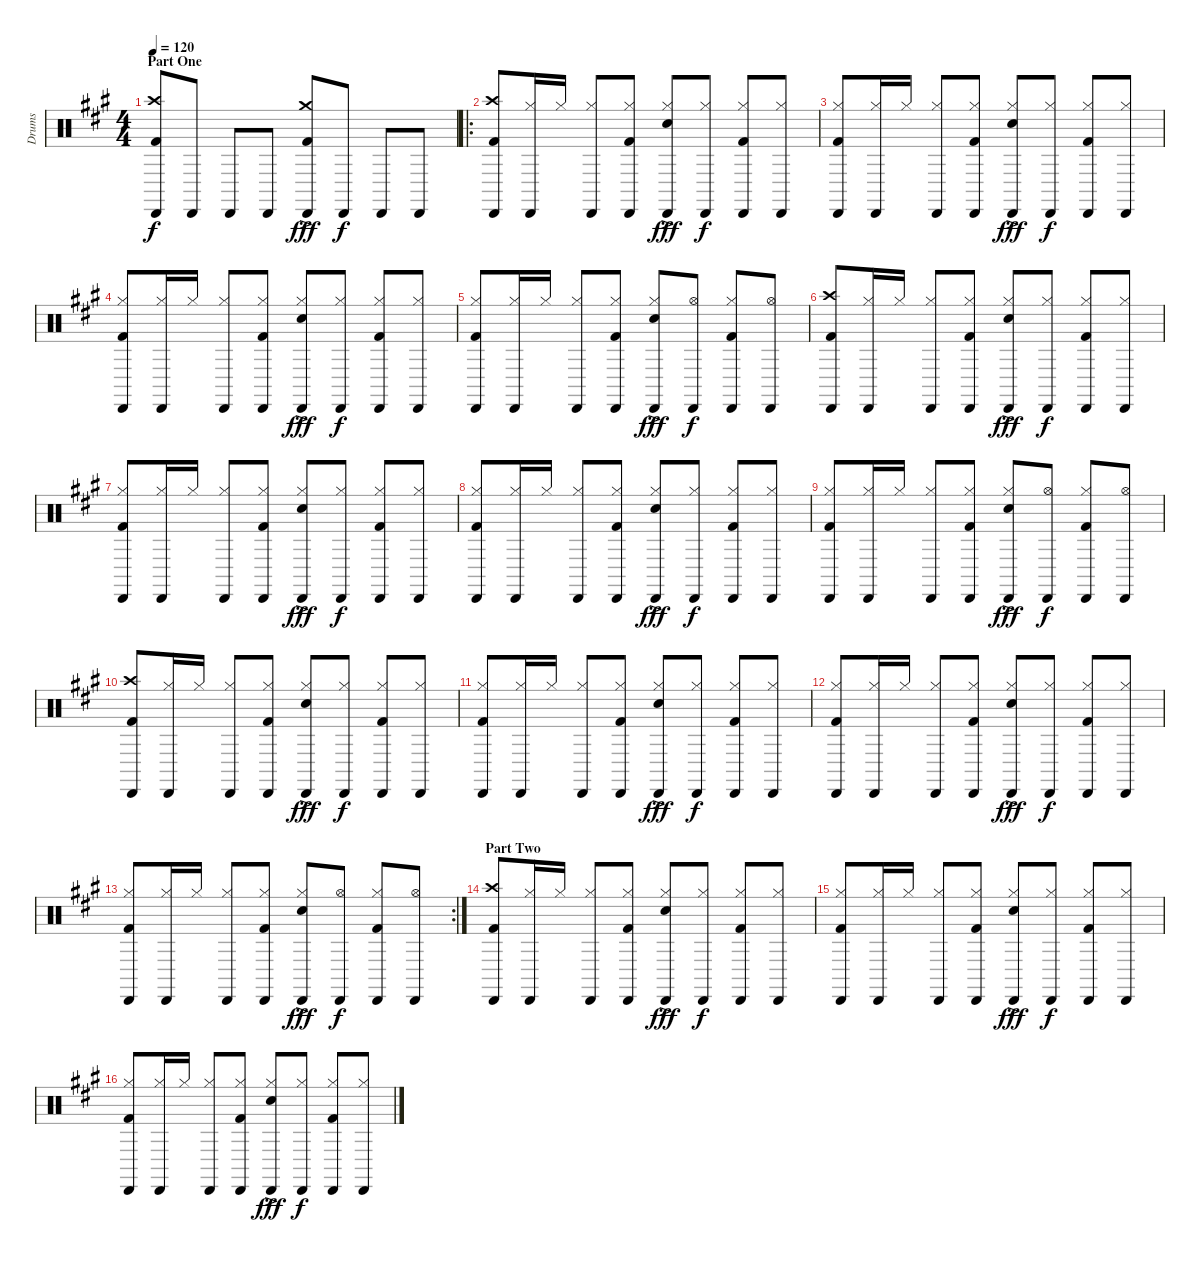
\track ("Drums" "Drums") {instrument percussion}
\staff {score}
\articulation defaults
\ts (4 4)
\section ("" "Part One")
\tempo 120
\clef neutral
\ks a
("Crash high (hit)" "Kick (hit) 2" "Cabasa (hit)").8{dy f} "Cabasa (hit)".8 "Cabasa (hit)".8 "Cabasa (hit)".8 ("Crash medium (hit)" "Kick (hit) 2" "Cabasa (hit)"{ac}).8{dy fff} "Cabasa (hit)".8{dy f} "Cabasa (hit)".8 "Cabasa (hit)".8 |
\ro
("Crash high (hit)" "Kick (hit) 2" "Cabasa (hit)").8 ("Hi-Hat (closed)" "Cabasa (hit)").16 "Hi-Hat (closed)".16 ("Hi-Hat (closed)" "Cabasa (hit)").8 ("Hi-Hat (closed)" "Kick (hit) 2" "Cabasa (hit)").8 ("Hi-Hat (closed)" "Snare (hit) 2" "Cabasa (hit)"{ac}).8{dy fff} ("Hi-Hat (closed)" "Cabasa (hit)").8{dy f} ("Hi-Hat (closed)" "Kick (hit) 2" "Cabasa (hit)").8 ("Hi-Hat (closed)" "Cabasa (hit)").8 |
("Hi-Hat (closed)" "Kick (hit) 2" "Cabasa (hit)").8 ("Hi-Hat (closed)" "Cabasa (hit)").16 "Hi-Hat (closed)".16 ("Hi-Hat (closed)" "Cabasa (hit)").8 ("Hi-Hat (closed)" "Kick (hit) 2" "Cabasa (hit)").8 ("Hi-Hat (closed)" "Snare (hit) 2" "Cabasa (hit)"{ac}).8{dy fff} ("Hi-Hat (closed)" "Cabasa (hit)").8{dy f} ("Hi-Hat (closed)" "Kick (hit) 2" "Cabasa (hit)").8 ("Hi-Hat (closed)" "Cabasa (hit)").8 |
("Hi-Hat (closed)" "Kick (hit) 2" "Cabasa (hit)").8 ("Hi-Hat (closed)" "Cabasa (hit)").16 "Hi-Hat (closed)".16 ("Hi-Hat (closed)" "Cabasa (hit)").8 ("Hi-Hat (closed)" "Kick (hit) 2" "Cabasa (hit)").8 ("Hi-Hat (closed)" "Snare (hit) 2" "Cabasa (hit)"{ac}).8{dy fff} ("Hi-Hat (closed)" "Cabasa (hit)").8{dy f} ("Hi-Hat (closed)" "Kick (hit) 2" "Cabasa (hit)").8 ("Hi-Hat (closed)" "Cabasa (hit)").8 |
("Hi-Hat (closed)" "Kick (hit) 2" "Cabasa (hit)").8 ("Hi-Hat (closed)" "Cabasa (hit)").16 "Hi-Hat (closed)".16 ("Hi-Hat (closed)" "Cabasa (hit)").8 ("Hi-Hat (closed)" "Kick (hit) 2" "Cabasa (hit)").8 ("Hi-Hat (closed)" "Snare (hit) 2" "Cabasa (hit)"{ac}).8{dy fff} ("Hi-Hat (open)" "Cabasa (hit)").8{dy f} ("Hi-Hat (closed)" "Kick (hit) 2" "Cabasa (hit)").8 ("Hi-Hat (open)" "Cabasa (hit)").8 |
("Crash high (hit)" "Kick (hit) 2" "Cabasa (hit)").8 ("Hi-Hat (closed)" "Cabasa (hit)").16 "Hi-Hat (closed)".16 ("Hi-Hat (closed)" "Cabasa (hit)").8 ("Hi-Hat (closed)" "Kick (hit) 2" "Cabasa (hit)").8 ("Hi-Hat (closed)" "Snare (hit) 2" "Cabasa (hit)"{ac}).8{dy fff} ("Hi-Hat (closed)" "Cabasa (hit)").8{dy f} ("Hi-Hat (closed)" "Kick (hit) 2" "Cabasa (hit)").8 ("Hi-Hat (closed)" "Cabasa (hit)").8 |
("Hi-Hat (closed)" "Kick (hit) 2" "Cabasa (hit)").8 ("Hi-Hat (closed)" "Cabasa (hit)").16 "Hi-Hat (closed)".16 ("Hi-Hat (closed)" "Cabasa (hit)").8 ("Hi-Hat (closed)" "Kick (hit) 2" "Cabasa (hit)").8 ("Hi-Hat (closed)" "Snare (hit) 2" "Cabasa (hit)"{ac}).8{dy fff} ("Hi-Hat (closed)" "Cabasa (hit)").8{dy f} ("Hi-Hat (closed)" "Kick (hit) 2" "Cabasa (hit)").8 ("Hi-Hat (closed)" "Cabasa (hit)").8 |
("Hi-Hat (closed)" "Kick (hit) 2" "Cabasa (hit)").8 ("Hi-Hat (closed)" "Cabasa (hit)").16 "Hi-Hat (closed)".16 ("Hi-Hat (closed)" "Cabasa (hit)").8 ("Hi-Hat (closed)" "Kick (hit) 2" "Cabasa (hit)").8 ("Hi-Hat (closed)" "Snare (hit) 2" "Cabasa (hit)"{ac}).8{dy fff} ("Hi-Hat (closed)" "Cabasa (hit)").8{dy f} ("Hi-Hat (closed)" "Kick (hit) 2" "Cabasa (hit)").8 ("Hi-Hat (closed)" "Cabasa (hit)").8 |
("Hi-Hat (closed)" "Kick (hit) 2" "Cabasa (hit)").8 ("Hi-Hat (closed)" "Cabasa (hit)").16 "Hi-Hat (closed)".16 ("Hi-Hat (closed)" "Cabasa (hit)").8 ("Hi-Hat (closed)" "Kick (hit) 2" "Cabasa (hit)").8 ("Hi-Hat (closed)" "Snare (hit) 2" "Cabasa (hit)"{ac}).8{dy fff} ("Hi-Hat (open)" "Cabasa (hit)").8{dy f} ("Hi-Hat (closed)" "Kick (hit) 2" "Cabasa (hit)").8 ("Hi-Hat (open)" "Cabasa (hit)").8 |
("Crash high (hit)" "Kick (hit) 2" "Cabasa (hit)").8 ("Hi-Hat (closed)" "Cabasa (hit)").16 "Hi-Hat (closed)".16 ("Hi-Hat (closed)" "Cabasa (hit)").8 ("Hi-Hat (closed)" "Kick (hit) 2" "Cabasa (hit)").8 ("Hi-Hat (closed)" "Snare (hit) 2" "Cabasa (hit)"{ac}).8{dy fff} ("Hi-Hat (closed)" "Cabasa (hit)").8{dy f} ("Hi-Hat (closed)" "Kick (hit) 2" "Cabasa (hit)").8 ("Hi-Hat (closed)" "Cabasa (hit)").8 |
("Hi-Hat (closed)" "Kick (hit) 2" "Cabasa (hit)").8 ("Hi-Hat (closed)" "Cabasa (hit)").16 "Hi-Hat (closed)".16 ("Hi-Hat (closed)" "Cabasa (hit)").8 ("Hi-Hat (closed)" "Kick (hit) 2" "Cabasa (hit)").8 ("Hi-Hat (closed)" "Snare (hit) 2" "Cabasa (hit)"{ac}).8{dy fff} ("Hi-Hat (closed)" "Cabasa (hit)").8{dy f} ("Hi-Hat (closed)" "Kick (hit) 2" "Cabasa (hit)").8 ("Hi-Hat (closed)" "Cabasa (hit)").8 |
("Hi-Hat (closed)" "Kick (hit) 2" "Cabasa (hit)").8 ("Hi-Hat (closed)" "Cabasa (hit)").16 "Hi-Hat (closed)".16 ("Hi-Hat (closed)" "Cabasa (hit)").8 ("Hi-Hat (closed)" "Kick (hit) 2" "Cabasa (hit)").8 ("Hi-Hat (closed)" "Snare (hit) 2" "Cabasa (hit)"{ac}).8{dy fff} ("Hi-Hat (closed)" "Cabasa (hit)").8{dy f} ("Hi-Hat (closed)" "Kick (hit) 2" "Cabasa (hit)").8 ("Hi-Hat (closed)" "Cabasa (hit)").8 |
\rc 2
("Hi-Hat (closed)" "Kick (hit) 2" "Cabasa (hit)").8 ("Hi-Hat (closed)" "Cabasa (hit)").16 "Hi-Hat (closed)".16 ("Hi-Hat (closed)" "Cabasa (hit)").8 ("Hi-Hat (closed)" "Kick (hit) 2" "Cabasa (hit)").8 ("Hi-Hat (closed)" "Snare (hit) 2" "Cabasa (hit)"{ac}).8{dy fff} ("Hi-Hat (open)" "Cabasa (hit)").8{dy f} ("Hi-Hat (closed)" "Kick (hit) 2" "Cabasa (hit)").8 ("Hi-Hat (open)" "Cabasa (hit)").8 |
\section ("" "Part Two")
("Crash high (hit)" "Kick (hit) 2" "Cabasa (hit)").8 ("Hi-Hat (closed)" "Cabasa (hit)").16 "Hi-Hat (closed)".16 ("Hi-Hat (closed)" "Cabasa (hit)").8 ("Hi-Hat (closed)" "Kick (hit) 2" "Cabasa (hit)").8 ("Hi-Hat (closed)" "Snare (hit) 2" "Cabasa (hit)"{ac}).8{dy fff} ("Hi-Hat (closed)" "Cabasa (hit)").8{dy f} ("Hi-Hat (closed)" "Kick (hit) 2" "Cabasa (hit)").8 ("Hi-Hat (closed)" "Cabasa (hit)").8 |
("Hi-Hat (closed)" "Kick (hit) 2" "Cabasa (hit)").8 ("Hi-Hat (closed)" "Cabasa (hit)").16 "Hi-Hat (closed)".16 ("Hi-Hat (closed)" "Cabasa (hit)").8 ("Hi-Hat (closed)" "Kick (hit) 2" "Cabasa (hit)").8 ("Hi-Hat (closed)" "Snare (hit) 2" "Cabasa (hit)"{ac}).8{dy fff} ("Hi-Hat (closed)" "Cabasa (hit)").8{dy f} ("Hi-Hat (closed)" "Kick (hit) 2" "Cabasa (hit)").8 ("Hi-Hat (closed)" "Cabasa (hit)").8 |
("Hi-Hat (closed)" "Kick (hit) 2" "Cabasa (hit)").8 ("Hi-Hat (closed)" "Cabasa (hit)").16 "Hi-Hat (closed)".16 ("Hi-Hat (closed)" "Cabasa (hit)").8 ("Hi-Hat (closed)" "Kick (hit) 2" "Cabasa (hit)").8 ("Hi-Hat (closed)" "Snare (hit) 2" "Cabasa (hit)"{ac}).8{dy fff} ("Hi-Hat (closed)" "Cabasa (hit)").8{dy f} ("Hi-Hat (closed)" "Kick (hit) 2" "Cabasa (hit)").8 ("Hi-Hat (closed)" "Cabasa (hit)").8
